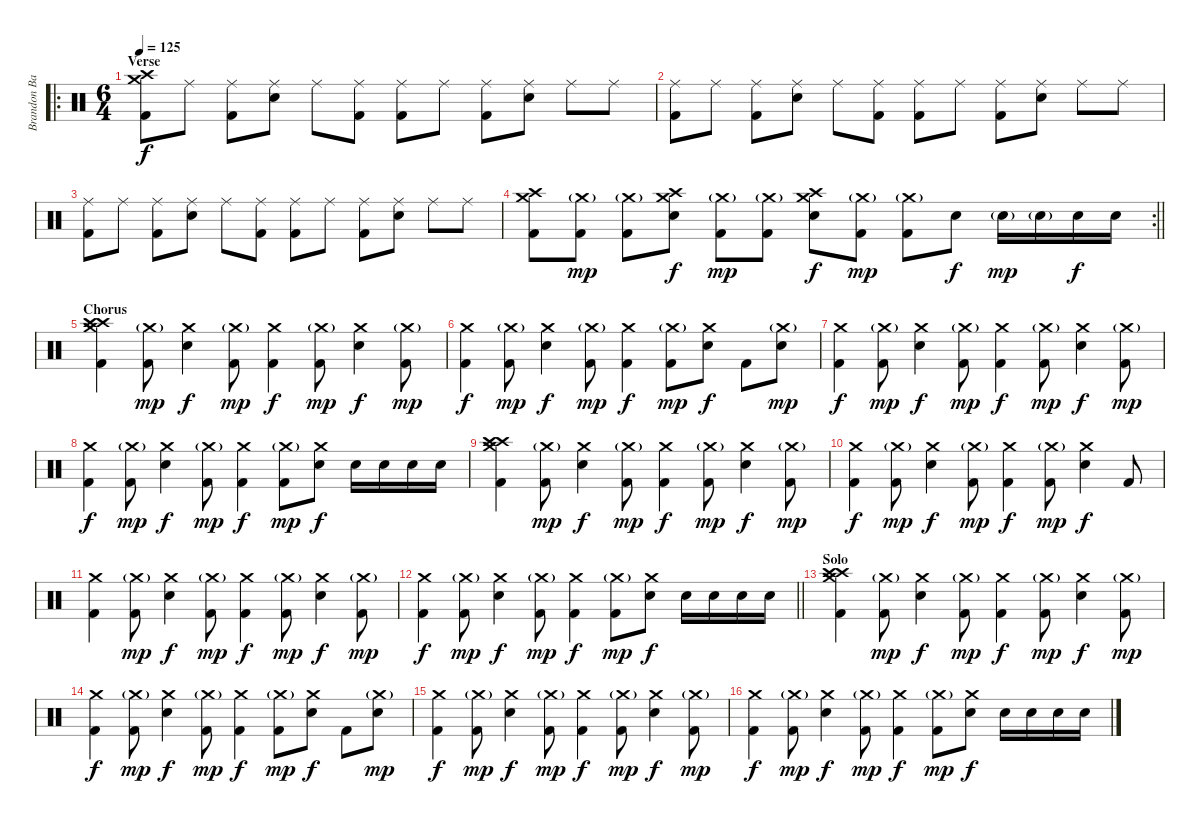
\track ("Brandon Barnes" "Brandon Ba") {instrument percussion}
\staff {score}
\articulation defaults
\ro
\ts (6 4)
\section ("" "Verse")
\tempo 125
\clef neutral
\ks c
("Crash high (hit)" "Crash medium (hit)" "Kick (hit) 2").8{dy f} "Ride (middle)".8 ("Ride (middle)" "Kick (hit) 2").8 ("Ride (middle)" "Electric Snare (hit)").8 "Ride (middle)".8 ("Ride (middle)" "Kick (hit) 2").8 ("Ride (middle)" "Kick (hit) 2").8 "Ride (middle)".8 ("Ride (middle)" "Kick (hit) 2").8 ("Ride (middle)" "Electric Snare (hit)").8 "Ride (middle)".8 "Ride (middle)".8 |
("Ride (middle)" "Kick (hit) 2").8 "Ride (middle)".8 ("Ride (middle)" "Kick (hit) 2").8 ("Ride (middle)" "Electric Snare (hit)").8 "Ride (middle)".8 ("Ride (middle)" "Kick (hit) 2").8 ("Ride (middle)" "Kick (hit) 2").8 "Ride (middle)".8 ("Ride (middle)" "Kick (hit) 2").8 ("Ride (middle)" "Electric Snare (hit)").8 "Ride (middle)".8 "Ride (middle)".8 |
("Ride (middle)" "Kick (hit) 2").8 "Ride (middle)".8 ("Ride (middle)" "Kick (hit) 2").8 ("Ride (middle)" "Electric Snare (hit)").8 "Ride (middle)".8 ("Ride (middle)" "Kick (hit) 2").8 ("Ride (middle)" "Kick (hit) 2").8 "Ride (middle)".8 ("Ride (middle)" "Kick (hit) 2").8 ("Ride (middle)" "Electric Snare (hit)").8 "Ride (middle)".8 "Ride (middle)".8 |
\rc 2
\barLineRight lightlight
("Crash high (hit)" "Crash medium (hit)" "Kick (hit) 2").8 ("Crash medium (hit)"{g} "Kick (hit) 2").8{dy mp} ("Crash medium (hit)"{g} "Kick (hit) 2").8 ("Crash medium (hit)" "Crash high (hit)" "Electric Snare (hit)").8{dy f} ("Crash medium (hit)"{g} "Kick (hit) 2").8{dy mp} ("Crash medium (hit)"{g} "Kick (hit) 2").8 ("Crash high (hit)" "Crash medium (hit)" "Electric Snare (hit)").8{dy f} ("Crash medium (hit)"{g} "Kick (hit) 2").8{dy mp} ("Crash medium (hit)"{g} "Kick (hit) 2").8 "Electric Snare (hit)".8{dy f} "Electric Snare (hit)"{g}.16{dy mp} "Electric Snare (hit)"{g}.16 "Electric Snare (hit)".16{dy f} "Electric Snare (hit)".16 |
\section ("" "Chorus")
("Crash high (hit)" "Crash high (hit)" "Crash medium (hit)" "Kick (hit) 2").4 ("Crash medium (hit)"{g} "Kick (hit) 2").8{dy mp} ("Crash medium (hit)" "Electric Snare (hit)").4{dy f} ("Crash medium (hit)"{g} "Kick (hit) 2").8{dy mp} ("Crash medium (hit)" "Kick (hit) 2").4{dy f} ("Crash medium (hit)"{g} "Kick (hit) 2").8{dy mp} ("Crash medium (hit)" "Electric Snare (hit)").4{dy f} ("Crash medium (hit)"{g} "Kick (hit) 2").8{dy mp} |
("Crash medium (hit)" "Kick (hit) 2").4{dy f} ("Crash medium (hit)"{g} "Kick (hit) 2").8{dy mp} ("Crash medium (hit)" "Electric Snare (hit)").4{dy f} ("Crash medium (hit)"{g} "Kick (hit) 2").8{dy mp} ("Crash medium (hit)" "Kick (hit) 2").4{dy f} ("Crash medium (hit)"{g} "Kick (hit) 2").8{dy mp} ("Crash medium (hit)" "Electric Snare (hit)").8{dy f} "Kick (hit) 2".8 ("Crash medium (hit)"{g} "Electric Snare (hit)").8{dy mp} |
("Crash medium (hit)" "Kick (hit) 2").4{dy f} ("Crash medium (hit)"{g} "Kick (hit) 2").8{dy mp} ("Crash medium (hit)" "Electric Snare (hit)").4{dy f} ("Crash medium (hit)"{g} "Kick (hit) 2").8{dy mp} ("Crash medium (hit)" "Kick (hit) 2").4{dy f} ("Crash medium (hit)"{g} "Kick (hit) 2").8{dy mp} ("Crash medium (hit)" "Electric Snare (hit)").4{dy f} ("Crash medium (hit)"{g} "Kick (hit) 2").8{dy mp} |
("Crash medium (hit)" "Kick (hit) 2").4{dy f} ("Crash medium (hit)"{g} "Kick (hit) 2").8{dy mp} ("Crash medium (hit)" "Electric Snare (hit)").4{dy f} ("Crash medium (hit)"{g} "Kick (hit) 2").8{dy mp} ("Crash medium (hit)" "Kick (hit) 2").4{dy f} ("Crash medium (hit)"{g} "Kick (hit) 2").8{dy mp} ("Crash medium (hit)" "Electric Snare (hit)").8{dy f} "Electric Snare (hit)".16 "Electric Snare (hit)".16 "Electric Snare (hit)".16 "Electric Snare (hit)".16 |
("Crash high (hit)" "Crash high (hit)" "Crash medium (hit)" "Kick (hit) 2").4 ("Crash medium (hit)"{g} "Kick (hit) 2").8{dy mp} ("Crash medium (hit)" "Electric Snare (hit)").4{dy f} ("Crash medium (hit)"{g} "Kick (hit) 2").8{dy mp} ("Crash medium (hit)" "Kick (hit) 2").4{dy f} ("Crash medium (hit)"{g} "Kick (hit) 2").8{dy mp} ("Crash medium (hit)" "Electric Snare (hit)").4{dy f} ("Crash medium (hit)"{g} "Kick (hit) 2").8{dy mp} |
("Crash medium (hit)" "Kick (hit) 2").4{dy f} ("Crash medium (hit)"{g} "Kick (hit) 2").8{dy mp} ("Crash medium (hit)" "Electric Snare (hit)").4{dy f} ("Crash medium (hit)"{g} "Kick (hit) 2").8{dy mp} ("Crash medium (hit)" "Kick (hit) 2").4{dy f} ("Crash medium (hit)"{g} "Kick (hit) 2").8{dy mp} ("Crash medium (hit)" "Electric Snare (hit)").4{dy f} "Kick (hit) 2".8 |
("Crash medium (hit)" "Kick (hit) 2").4 ("Crash medium (hit)"{g} "Kick (hit) 2").8{dy mp} ("Crash medium (hit)" "Electric Snare (hit)").4{dy f} ("Crash medium (hit)"{g} "Kick (hit) 2").8{dy mp} ("Crash medium (hit)" "Kick (hit) 2").4{dy f} ("Crash medium (hit)"{g} "Kick (hit) 2").8{dy mp} ("Crash medium (hit)" "Electric Snare (hit)").4{dy f} ("Crash medium (hit)"{g} "Kick (hit) 2").8{dy mp} |
\barLineRight lightlight
("Crash medium (hit)" "Kick (hit) 2").4{dy f} ("Crash medium (hit)"{g} "Kick (hit) 2").8{dy mp} ("Crash medium (hit)" "Electric Snare (hit)").4{dy f} ("Crash medium (hit)"{g} "Kick (hit) 2").8{dy mp} ("Crash medium (hit)" "Kick (hit) 2").4{dy f} ("Crash medium (hit)"{g} "Kick (hit) 2").8{dy mp} ("Crash medium (hit)" "Electric Snare (hit)").8{dy f} "Electric Snare (hit)".16 "Electric Snare (hit)".16 "Electric Snare (hit)".16 "Electric Snare (hit)".16 |
\section ("" "Solo")
("Crash high (hit)" "Crash high (hit)" "Crash medium (hit)" "Kick (hit) 2").4 ("Crash medium (hit)"{g} "Kick (hit) 2").8{dy mp} ("Crash medium (hit)" "Electric Snare (hit)").4{dy f} ("Crash medium (hit)"{g} "Kick (hit) 2").8{dy mp} ("Crash medium (hit)" "Kick (hit) 2").4{dy f} ("Crash medium (hit)"{g} "Kick (hit) 2").8{dy mp} ("Crash medium (hit)" "Electric Snare (hit)").4{dy f} ("Crash medium (hit)"{g} "Kick (hit) 2").8{dy mp} |
("Crash medium (hit)" "Kick (hit) 2").4{dy f} ("Crash medium (hit)"{g} "Kick (hit) 2").8{dy mp} ("Crash medium (hit)" "Electric Snare (hit)").4{dy f} ("Crash medium (hit)"{g} "Kick (hit) 2").8{dy mp} ("Crash medium (hit)" "Kick (hit) 2").4{dy f} ("Crash medium (hit)"{g} "Kick (hit) 2").8{dy mp} ("Crash medium (hit)" "Electric Snare (hit)").8{dy f} "Kick (hit) 2".8 ("Crash medium (hit)"{g} "Electric Snare (hit)").8{dy mp} |
("Crash medium (hit)" "Kick (hit) 2").4{dy f} ("Crash medium (hit)"{g} "Kick (hit) 2").8{dy mp} ("Crash medium (hit)" "Electric Snare (hit)").4{dy f} ("Crash medium (hit)"{g} "Kick (hit) 2").8{dy mp} ("Crash medium (hit)" "Kick (hit) 2").4{dy f} ("Crash medium (hit)"{g} "Kick (hit) 2").8{dy mp} ("Crash medium (hit)" "Electric Snare (hit)").4{dy f} ("Crash medium (hit)"{g} "Kick (hit) 2").8{dy mp} |
("Crash medium (hit)" "Kick (hit) 2").4{dy f} ("Crash medium (hit)"{g} "Kick (hit) 2").8{dy mp} ("Crash medium (hit)" "Electric Snare (hit)").4{dy f} ("Crash medium (hit)"{g} "Kick (hit) 2").8{dy mp} ("Crash medium (hit)" "Kick (hit) 2").4{dy f} ("Crash medium (hit)"{g} "Kick (hit) 2").8{dy mp} ("Crash medium (hit)" "Electric Snare (hit)").8{dy f} "Electric Snare (hit)".16 "Electric Snare (hit)".16 "Electric Snare (hit)".16 "Electric Snare (hit)".16
